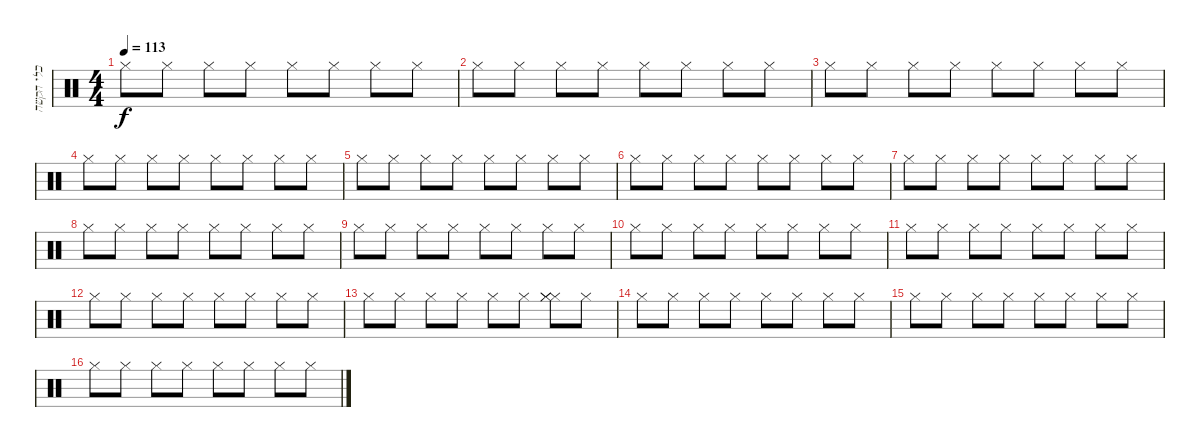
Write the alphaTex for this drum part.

\track ("כלי הקשה" "כלי הקשה") {instrument percussion}
\staff {score}
\articulation defaults
\ts (4 4)
\tempo 113
\clef neutral
\ks c "Hi-Hat (closed)".8{dy f} "Hi-Hat (closed)".8 "Hi-Hat (closed)".8 "Hi-Hat (closed)".8 "Hi-Hat (closed)".8 "Hi-Hat (closed)".8 "Hi-Hat (closed)".8 "Hi-Hat (closed)".8
|
"Hi-Hat (closed)".8 "Hi-Hat (closed)".8 "Hi-Hat (closed)".8 "Hi-Hat (closed)".8 "Hi-Hat (closed)".8 "Hi-Hat (closed)".8 "Hi-Hat (closed)".8 "Hi-Hat (closed)".8 |
"Hi-Hat (closed)".8 "Hi-Hat (closed)".8 "Hi-Hat (closed)".8 "Hi-Hat (closed)".8 "Hi-Hat (closed)".8 "Hi-Hat (closed)".8 "Hi-Hat (closed)".8 "Hi-Hat (closed)".8 |
"Hi-Hat (closed)".8 "Hi-Hat (closed)".8 "Hi-Hat (closed)".8 "Hi-Hat (closed)".8 "Hi-Hat (closed)".8 "Hi-Hat (closed)".8 "Hi-Hat (closed)".8 "Hi-Hat (closed)".8 |
"Hi-Hat (closed)".8 "Hi-Hat (closed)".8 "Hi-Hat (closed)".8 "Hi-Hat (closed)".8 "Hi-Hat (closed)".8 "Hi-Hat (closed)".8 "Hi-Hat (closed)".8 "Hi-Hat (closed)".8 |
"Hi-Hat (closed)".8 "Hi-Hat (closed)".8 "Hi-Hat (closed)".8 "Hi-Hat (closed)".8 "Hi-Hat (closed)".8 "Hi-Hat (closed)".8 "Hi-Hat (closed)".8 "Hi-Hat (closed)".8 |
"Hi-Hat (closed)".8 "Hi-Hat (closed)".8 "Hi-Hat (closed)".8 "Hi-Hat (closed)".8 "Hi-Hat (closed)".8 "Hi-Hat (closed)".8 "Hi-Hat (closed)".8 "Hi-Hat (closed)".8 |
"Hi-Hat (closed)".8 "Hi-Hat (closed)".8 "Hi-Hat (closed)".8 "Hi-Hat (closed)".8 "Hi-Hat (closed)".8 "Hi-Hat (closed)".8 "Hi-Hat (closed)".8 "Hi-Hat (closed)".8 |
"Hi-Hat (closed)".8 "Hi-Hat (closed)".8 "Hi-Hat (closed)".8 "Hi-Hat (closed)".8 "Hi-Hat (closed)".8 "Hi-Hat (closed)".8 "Hi-Hat (closed)".8 "Hi-Hat (closed)".8 |
"Hi-Hat (closed)".8 "Hi-Hat (closed)".8 "Hi-Hat (closed)".8 "Hi-Hat (closed)".8 "Hi-Hat (closed)".8 "Hi-Hat (closed)".8 "Hi-Hat (closed)".8 "Hi-Hat (closed)".8 |
"Hi-Hat (closed)".8 "Hi-Hat (closed)".8 "Hi-Hat (closed)".8 "Hi-Hat (closed)".8 "Hi-Hat (closed)".8 "Hi-Hat (closed)".8 "Hi-Hat (closed)".8 "Hi-Hat (closed)".8 |
"Hi-Hat (closed)".8 "Hi-Hat (closed)".8 "Hi-Hat (closed)".8 "Hi-Hat (closed)".8 "Hi-Hat (closed)".8 "Hi-Hat (closed)".8 "Hi-Hat (closed)".8 "Hi-Hat (closed)".8 |
"Hi-Hat (closed)".8 "Hi-Hat (closed)".8 "Hi-Hat (closed)".8 "Hi-Hat (closed)".8 "Hi-Hat (closed)".8 "Hi-Hat (closed)".8 ("Hi-Hat (closed)" "Hi-Hat (closed)" "Hi-Hat (closed)").8 "Hi-Hat (closed)".8 |
"Hi-Hat (closed)".8 "Hi-Hat (closed)".8 "Hi-Hat (closed)".8 "Hi-Hat (closed)".8 "Hi-Hat (closed)".8 "Hi-Hat (closed)".8 "Hi-Hat (closed)".8 "Hi-Hat (closed)".8 |
"Hi-Hat (closed)".8 "Hi-Hat (closed)".8 "Hi-Hat (closed)".8 "Hi-Hat (closed)".8 "Hi-Hat (closed)".8 "Hi-Hat (closed)".8 "Hi-Hat (closed)".8 "Hi-Hat (closed)".8 |
"Hi-Hat (closed)".8 "Hi-Hat (closed)".8 "Hi-Hat (closed)".8 "Hi-Hat (closed)".8 "Hi-Hat (closed)".8 "Hi-Hat (closed)".8 "Hi-Hat (closed)".8 "Hi-Hat (closed)".8
